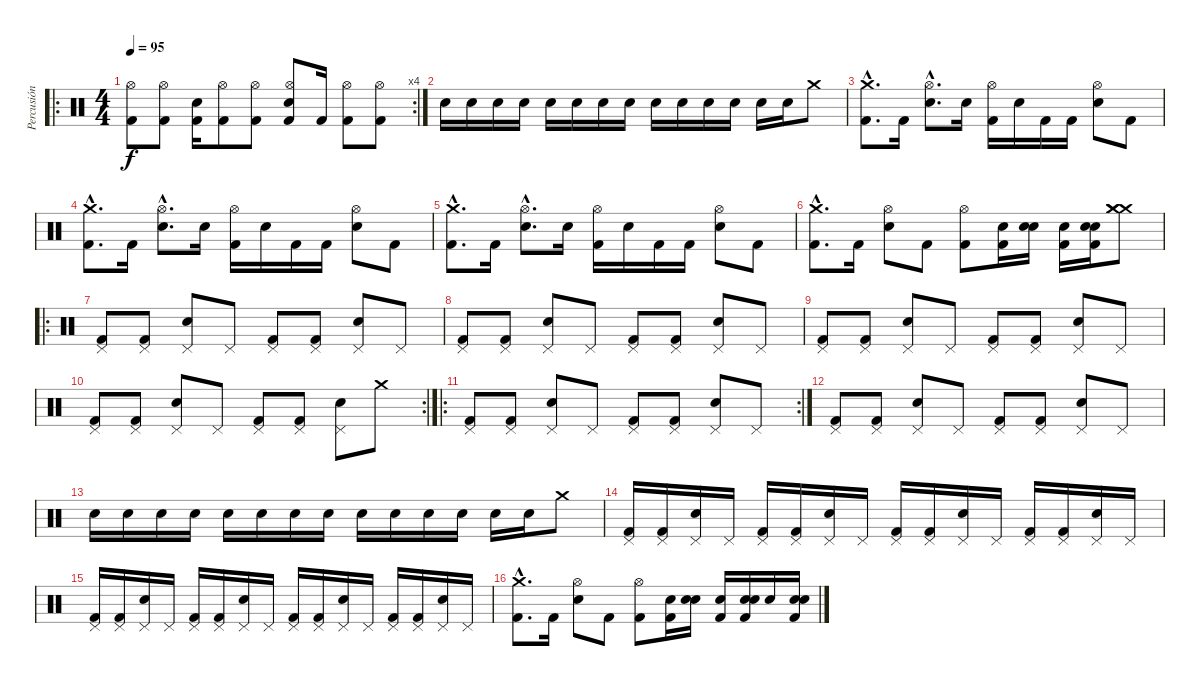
\track ("Percusión" "Percusión") {instrument percussion}
\staff {score}
\articulation defaults
\ro
\rc 4
\ts (4 4)
\tempo 95
\clef neutral
\ks c
("Kick (hit) 2" "Hi-Hat (open)").8{dy f} ("Kick (hit) 2" "Hi-Hat (open)").8 ("Electric Snare (hit)" "Kick (hit) 2").16 ("Kick (hit) 2" "Hi-Hat (open)").8 ("Kick (hit) 2" "Hi-Hat (open)").8 ("Electric Snare (hit)" "Kick (hit) 2" "Hi-Hat (open)").8 "Kick (hit) 2".16 ("Kick (hit) 2" "Hi-Hat (open)").8 ("Kick (hit) 2" "Hi-Hat (open)").8 |
"Electric Snare (hit)".16 "Electric Snare (hit)".16 "Electric Snare (hit)".16 "Electric Snare (hit)".16 "Electric Snare (hit)".16 "Electric Snare (hit)".16 "Electric Snare (hit)".16 "Electric Snare (hit)".16 "Electric Snare (hit)".16 "Electric Snare (hit)".16 "Electric Snare (hit)".16 "Electric Snare (hit)".16 "Electric Snare (hit)".16 "Electric Snare (hit)".16 "Crash medium (hit)".8 |
("Crash medium (hit)"{hac} "Kick (hit) 2"{hac}).8{d} "Kick (hit) 2".16 ("Hi-Hat (open)"{hac} "Electric Snare (hit)"{hac}).8{d} "Electric Snare (hit)".16 ("Hi-Hat (open)" "Kick (hit) 2").16 "Electric Snare (hit)".16 "Kick (hit) 2".16 "Kick (hit) 2".16 ("Hi-Hat (open)" "Electric Snare (hit)").8 "Kick (hit) 2".8 |
("Crash medium (hit)"{hac} "Kick (hit) 2"{hac}).8{d} "Kick (hit) 2".16 ("Hi-Hat (open)"{hac} "Electric Snare (hit)"{hac}).8{d} "Electric Snare (hit)".16 ("Hi-Hat (open)" "Kick (hit) 2").16 "Electric Snare (hit)".16 "Kick (hit) 2".16 "Kick (hit) 2".16 ("Hi-Hat (open)" "Electric Snare (hit)").8 "Kick (hit) 2".8 |
("Crash medium (hit)"{hac} "Kick (hit) 2"{hac}).8{d} "Kick (hit) 2".16 ("Hi-Hat (open)"{hac} "Electric Snare (hit)"{hac}).8{d} "Electric Snare (hit)".16 ("Hi-Hat (open)" "Kick (hit) 2").16 "Electric Snare (hit)".16 "Kick (hit) 2".16 "Kick (hit) 2".16 ("Hi-Hat (open)" "Electric Snare (hit)").8 "Kick (hit) 2".8 |
("Crash medium (hit)"{hac} "Kick (hit) 2"{hac}).8{d} "Kick (hit) 2".16 ("Hi-Hat (open)" "Electric Snare (hit)").8 "Kick (hit) 2".8 ("Hi-Hat (open)" "Kick (hit) 2").8 ("Kick (hit) 2" "Electric Snare (hit)").16 ("Electric Snare (hit)" "Snare (hit)").16 ("Kick (hit) 2" "Electric Snare (hit)").16 ("Kick (hit) 2" "Electric Snare (hit)" "Snare (hit)").16 ("Crash medium (hit)" "Crash medium (hit)" "Crash medium (hit)").8 |
\ro
("Pedal Hi-Hat (hit)" "Kick (hit) 2").8 ("Pedal Hi-Hat (hit)" "Kick (hit) 2").8 ("Pedal Hi-Hat (hit)" "Electric Snare (hit)").8 "Pedal Hi-Hat (hit)".8 ("Pedal Hi-Hat (hit)" "Kick (hit) 2").8 ("Pedal Hi-Hat (hit)" "Kick (hit) 2").8 ("Pedal Hi-Hat (hit)" "Electric Snare (hit)").8 "Pedal Hi-Hat (hit)".8 |
("Pedal Hi-Hat (hit)" "Kick (hit) 2").8 ("Pedal Hi-Hat (hit)" "Kick (hit) 2").8 ("Pedal Hi-Hat (hit)" "Electric Snare (hit)").8 "Pedal Hi-Hat (hit)".8 ("Pedal Hi-Hat (hit)" "Kick (hit) 2").8 ("Pedal Hi-Hat (hit)" "Kick (hit) 2").8 ("Pedal Hi-Hat (hit)" "Electric Snare (hit)").8 "Pedal Hi-Hat (hit)".8 |
("Pedal Hi-Hat (hit)" "Kick (hit) 2").8 ("Pedal Hi-Hat (hit)" "Kick (hit) 2").8 ("Pedal Hi-Hat (hit)" "Electric Snare (hit)").8 "Pedal Hi-Hat (hit)".8 ("Pedal Hi-Hat (hit)" "Kick (hit) 2").8 ("Pedal Hi-Hat (hit)" "Kick (hit) 2").8 ("Pedal Hi-Hat (hit)" "Electric Snare (hit)").8 "Pedal Hi-Hat (hit)".8 |
\rc 2
("Pedal Hi-Hat (hit)" "Kick (hit) 2").8 ("Pedal Hi-Hat (hit)" "Kick (hit) 2").8 ("Pedal Hi-Hat (hit)" "Electric Snare (hit)").8 "Pedal Hi-Hat (hit)".8 ("Pedal Hi-Hat (hit)" "Kick (hit) 2").8 ("Pedal Hi-Hat (hit)" "Kick (hit) 2").8 ("Pedal Hi-Hat (hit)" "Electric Snare (hit)").8 "Crash medium (hit)".8 |
\ro
\rc 2
("Pedal Hi-Hat (hit)" "Kick (hit) 2").8 ("Pedal Hi-Hat (hit)" "Kick (hit) 2").8 ("Pedal Hi-Hat (hit)" "Electric Snare (hit)").8 "Pedal Hi-Hat (hit)".8 ("Pedal Hi-Hat (hit)" "Kick (hit) 2").8 ("Pedal Hi-Hat (hit)" "Kick (hit) 2").8 ("Pedal Hi-Hat (hit)" "Electric Snare (hit)").8 "Pedal Hi-Hat (hit)".8 |
("Pedal Hi-Hat (hit)" "Kick (hit) 2").8 ("Pedal Hi-Hat (hit)" "Kick (hit) 2").8 ("Pedal Hi-Hat (hit)" "Electric Snare (hit)").8 "Pedal Hi-Hat (hit)".8 ("Pedal Hi-Hat (hit)" "Kick (hit) 2").8 ("Pedal Hi-Hat (hit)" "Kick (hit) 2").8 ("Pedal Hi-Hat (hit)" "Electric Snare (hit)").8 "Pedal Hi-Hat (hit)".8 |
"Electric Snare (hit)".16 "Electric Snare (hit)".16 "Electric Snare (hit)".16 "Electric Snare (hit)".16 "Electric Snare (hit)".16 "Electric Snare (hit)".16 "Electric Snare (hit)".16 "Electric Snare (hit)".16 "Electric Snare (hit)".16 "Electric Snare (hit)".16 "Electric Snare (hit)".16 "Electric Snare (hit)".16 "Electric Snare (hit)".16 "Electric Snare (hit)".16 "Crash medium (hit)".8 |
("Pedal Hi-Hat (hit)" "Kick (hit) 2").16 ("Pedal Hi-Hat (hit)" "Kick (hit) 2").16 ("Pedal Hi-Hat (hit)" "Electric Snare (hit)").16 "Pedal Hi-Hat (hit)".16 ("Pedal Hi-Hat (hit)" "Kick (hit) 2").16 ("Pedal Hi-Hat (hit)" "Kick (hit) 2").16 ("Pedal Hi-Hat (hit)" "Electric Snare (hit)").16 "Pedal Hi-Hat (hit)".16 ("Pedal Hi-Hat (hit)" "Kick (hit) 2").16 ("Pedal Hi-Hat (hit)" "Kick (hit) 2").16 ("Pedal Hi-Hat (hit)" "Electric Snare (hit)").16 "Pedal Hi-Hat (hit)".16 ("Pedal Hi-Hat (hit)" "Kick (hit) 2").16 ("Pedal Hi-Hat (hit)" "Kick (hit) 2").16 ("Pedal Hi-Hat (hit)" "Electric Snare (hit)").16 "Pedal Hi-Hat (hit)".16 |
("Pedal Hi-Hat (hit)" "Kick (hit) 2").16 ("Pedal Hi-Hat (hit)" "Kick (hit) 2").16 ("Pedal Hi-Hat (hit)" "Electric Snare (hit)").16 "Pedal Hi-Hat (hit)".16 ("Pedal Hi-Hat (hit)" "Kick (hit) 2").16 ("Pedal Hi-Hat (hit)" "Kick (hit) 2").16 ("Pedal Hi-Hat (hit)" "Electric Snare (hit)").16 "Pedal Hi-Hat (hit)".16 ("Pedal Hi-Hat (hit)" "Kick (hit) 2").16 ("Pedal Hi-Hat (hit)" "Kick (hit) 2").16 ("Pedal Hi-Hat (hit)" "Electric Snare (hit)").16 "Pedal Hi-Hat (hit)".16 ("Pedal Hi-Hat (hit)" "Kick (hit) 2").16 ("Pedal Hi-Hat (hit)" "Kick (hit) 2").16 ("Pedal Hi-Hat (hit)" "Electric Snare (hit)").16 "Pedal Hi-Hat (hit)".16 |
("Crash medium (hit)"{hac} "Kick (hit) 2"{hac}).8{d} "Kick (hit) 2".16 ("Hi-Hat (open)" "Electric Snare (hit)").8 "Kick (hit) 2".8 ("Hi-Hat (open)" "Kick (hit) 2").8 ("Kick (hit) 2" "Electric Snare (hit)").16 ("Electric Snare (hit)" "Snare (hit)").16 ("Kick (hit) 2" "Electric Snare (hit)").16 ("Kick (hit) 2" "Electric Snare (hit)" "Snare (hit)").16 "Electric Snare (hit)".16 ("Kick (hit) 2" "Electric Snare (hit)" "Snare (hit)").16
